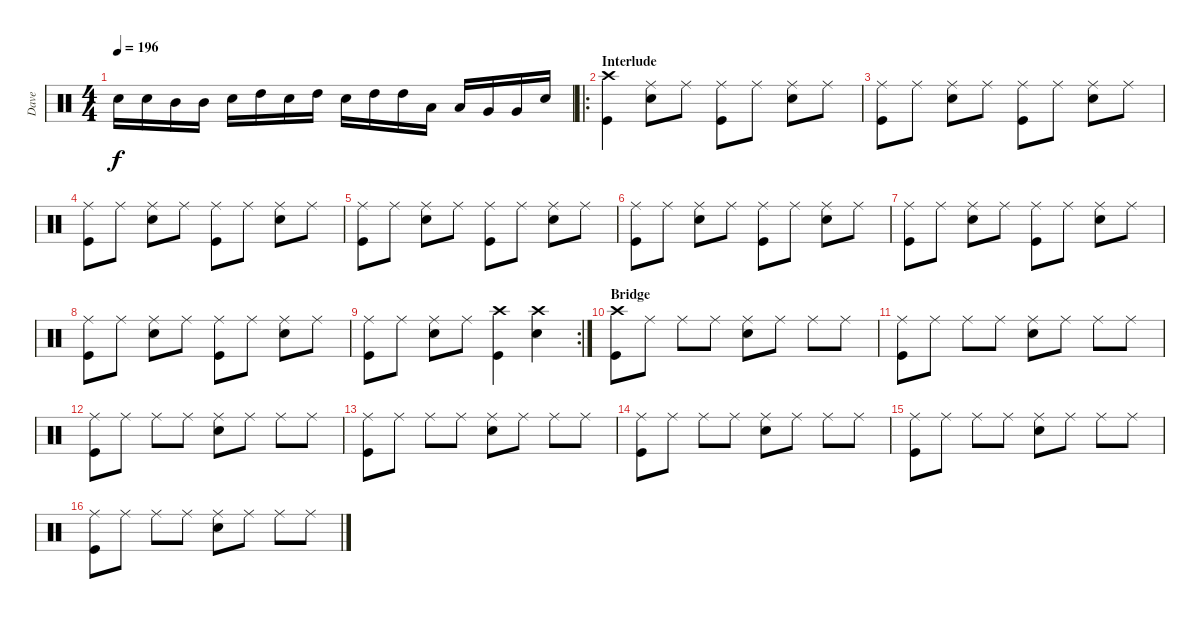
\track ("Dave" "Dave") {instrument percussion}
\staff {score}
\articulation defaults
\ts (4 4)
\tempo 196
\clef neutral
\ks c "Snare (hit) 2".16{dy f} "Snare (hit) 2".16 "Mid Tom (hit)".16 "Mid Tom (hit)".16 "Snare (hit) 2".16 "High Tom (hit)".16 "Snare (hit) 2".16 "High Tom (hit)".16 "Snare (hit) 2".16 "High Tom (hit)".16 "High Tom (hit)".16 "Low Tom (hit)".16 "Low Tom (hit)".16 "Very Low Tom (hit)".16 "Very Low Tom (hit)".16 "Snare (hit) 2".16
|
\ro
\section ("" "Interlude")
("Crash high (hit)" "Kick (hit)").4 ("Ride (middle)" "Snare (hit) 2").8 "Ride (middle)".8 ("Ride (middle)" "Kick (hit)").8 "Ride (middle)".8 ("Ride (middle)" "Snare (hit) 2").8 "Ride (middle)".8 |
("Ride (middle)" "Kick (hit)").8 "Ride (middle)".8 ("Ride (middle)" "Snare (hit) 2").8 "Ride (middle)".8 ("Ride (middle)" "Kick (hit)").8 "Ride (middle)".8 ("Ride (middle)" "Snare (hit) 2").8 "Ride (middle)".8 |
("Ride (middle)" "Kick (hit)").8 "Ride (middle)".8 ("Ride (middle)" "Snare (hit) 2").8 "Ride (middle)".8 ("Ride (middle)" "Kick (hit)").8 "Ride (middle)".8 ("Ride (middle)" "Snare (hit) 2").8 "Ride (middle)".8 |
("Ride (middle)" "Kick (hit)").8 "Ride (middle)".8 ("Ride (middle)" "Snare (hit) 2").8 "Ride (middle)".8 ("Ride (middle)" "Kick (hit)").8 "Ride (middle)".8 ("Ride (middle)" "Snare (hit) 2").8 "Ride (middle)".8 |
("Ride (middle)" "Kick (hit)").8 "Ride (middle)".8 ("Ride (middle)" "Snare (hit) 2").8 "Ride (middle)".8 ("Ride (middle)" "Kick (hit)").8 "Ride (middle)".8 ("Ride (middle)" "Snare (hit) 2").8 "Ride (middle)".8 |
("Ride (middle)" "Kick (hit)").8 "Ride (middle)".8 ("Ride (middle)" "Snare (hit) 2").8 "Ride (middle)".8 ("Ride (middle)" "Kick (hit)").8 "Ride (middle)".8 ("Ride (middle)" "Snare (hit) 2").8 "Ride (middle)".8 |
("Ride (middle)" "Kick (hit)").8 "Ride (middle)".8 ("Ride (middle)" "Snare (hit) 2").8 "Ride (middle)".8 ("Ride (middle)" "Kick (hit)").8 "Ride (middle)".8 ("Ride (middle)" "Snare (hit) 2").8 "Ride (middle)".8 |
\rc 2
("Ride (middle)" "Kick (hit)").8 "Ride (middle)".8 ("Ride (middle)" "Snare (hit) 2").8 "Ride (middle)".8 ("Crash high (hit)" "Kick (hit)").4 ("Crash high (hit)" "Snare (hit) 2").4 |
\section ("" "Bridge")
("Crash high (hit)" "Kick (hit)").8 "Ride (middle)".8 "Ride (middle)".8 "Ride (middle)".8 ("Ride (middle)" "Snare (hit) 2").8 "Ride (middle)".8 "Ride (middle)".8 "Ride (middle)".8 |
("Ride (middle)" "Kick (hit)").8 "Ride (middle)".8 "Ride (middle)".8 "Ride (middle)".8 ("Ride (middle)" "Snare (hit) 2").8 "Ride (middle)".8 "Ride (middle)".8 "Ride (middle)".8 |
("Ride (middle)" "Kick (hit)").8 "Ride (middle)".8 "Ride (middle)".8 "Ride (middle)".8 ("Ride (middle)" "Snare (hit) 2").8 "Ride (middle)".8 "Ride (middle)".8 "Ride (middle)".8 |
("Ride (middle)" "Kick (hit)").8 "Ride (middle)".8 "Ride (middle)".8 "Ride (middle)".8 ("Ride (middle)" "Snare (hit) 2").8 "Ride (middle)".8 "Ride (middle)".8 "Ride (middle)".8 |
("Ride (middle)" "Kick (hit)").8 "Ride (middle)".8 "Ride (middle)".8 "Ride (middle)".8 ("Ride (middle)" "Snare (hit) 2").8 "Ride (middle)".8 "Ride (middle)".8 "Ride (middle)".8 |
("Ride (middle)" "Kick (hit)").8 "Ride (middle)".8 "Ride (middle)".8 "Ride (middle)".8 ("Ride (middle)" "Snare (hit) 2").8 "Ride (middle)".8 "Ride (middle)".8 "Ride (middle)".8 |
("Ride (middle)" "Kick (hit)").8 "Ride (middle)".8 "Ride (middle)".8 "Ride (middle)".8 ("Ride (middle)" "Snare (hit) 2").8 "Ride (middle)".8 "Ride (middle)".8 "Ride (middle)".8
